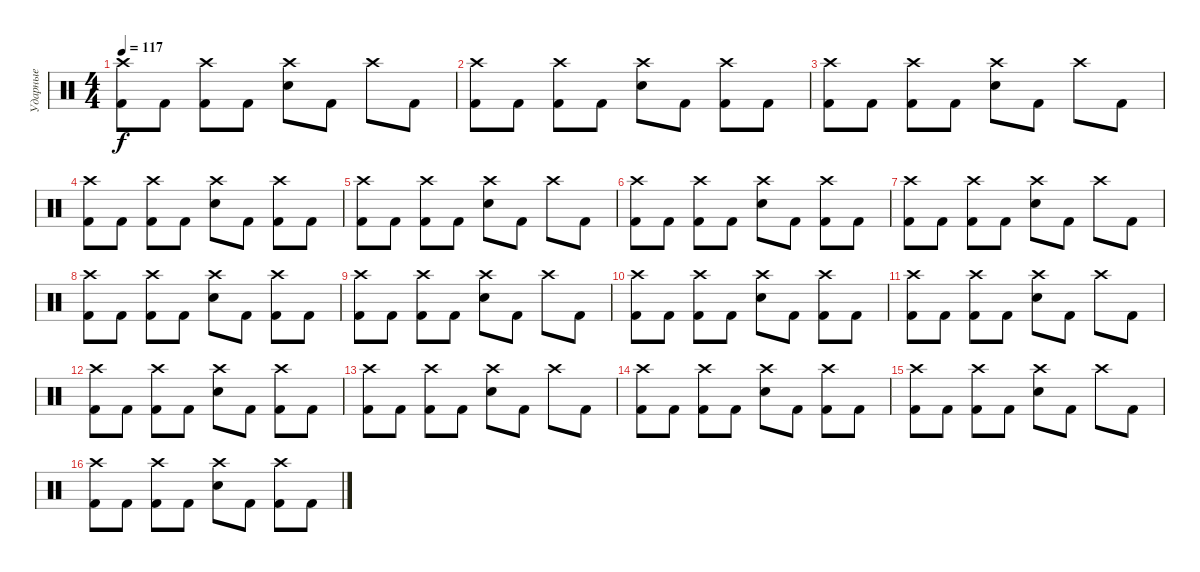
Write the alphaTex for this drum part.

\track ("Ударные" "Ударные") {instrument percussion}
\staff {score}
\articulation defaults
\ts (4 4)
\tempo 117
\clef neutral
\ks c
("Crash high (hit)" "Kick (hit) 2").8{dy f} "Kick (hit) 2".8 ("Crash high (hit)" "Kick (hit) 2").8 "Kick (hit) 2".8 ("Crash high (hit)" "Electric Snare (hit)").8 "Kick (hit) 2".8 "Crash high (hit)".8 "Kick (hit) 2".8 |
("Crash high (hit)" "Kick (hit) 2").8 "Kick (hit) 2".8 ("Crash high (hit)" "Kick (hit) 2").8 "Kick (hit) 2".8 ("Crash high (hit)" "Electric Snare (hit)").8 "Kick (hit) 2".8 ("Crash high (hit)" "Kick (hit) 2").8 "Kick (hit) 2".8 |
("Crash high (hit)" "Kick (hit) 2").8 "Kick (hit) 2".8 ("Crash high (hit)" "Kick (hit) 2").8 "Kick (hit) 2".8 ("Crash high (hit)" "Electric Snare (hit)").8 "Kick (hit) 2".8 "Crash high (hit)".8 "Kick (hit) 2".8 |
("Crash high (hit)" "Kick (hit) 2").8 "Kick (hit) 2".8 ("Crash high (hit)" "Kick (hit) 2").8 "Kick (hit) 2".8 ("Crash high (hit)" "Electric Snare (hit)").8 "Kick (hit) 2".8 ("Crash high (hit)" "Kick (hit) 2").8 "Kick (hit) 2".8 |
("Crash high (hit)" "Kick (hit) 2").8 "Kick (hit) 2".8 ("Crash high (hit)" "Kick (hit) 2").8 "Kick (hit) 2".8 ("Crash high (hit)" "Electric Snare (hit)").8 "Kick (hit) 2".8 "Crash high (hit)".8 "Kick (hit) 2".8 |
("Crash high (hit)" "Kick (hit) 2").8 "Kick (hit) 2".8 ("Crash high (hit)" "Kick (hit) 2").8 "Kick (hit) 2".8 ("Crash high (hit)" "Electric Snare (hit)").8 "Kick (hit) 2".8 ("Crash high (hit)" "Kick (hit) 2").8 "Kick (hit) 2".8 |
("Crash high (hit)" "Kick (hit) 2").8 "Kick (hit) 2".8 ("Crash high (hit)" "Kick (hit) 2").8 "Kick (hit) 2".8 ("Crash high (hit)" "Electric Snare (hit)").8 "Kick (hit) 2".8 "Crash high (hit)".8 "Kick (hit) 2".8 |
("Crash high (hit)" "Kick (hit) 2").8 "Kick (hit) 2".8 ("Crash high (hit)" "Kick (hit) 2").8 "Kick (hit) 2".8 ("Crash high (hit)" "Electric Snare (hit)").8 "Kick (hit) 2".8 ("Crash high (hit)" "Kick (hit) 2").8 "Kick (hit) 2".8 |
("Crash high (hit)" "Kick (hit) 2").8 "Kick (hit) 2".8 ("Crash high (hit)" "Kick (hit) 2").8 "Kick (hit) 2".8 ("Crash high (hit)" "Electric Snare (hit)").8 "Kick (hit) 2".8 "Crash high (hit)".8 "Kick (hit) 2".8 |
("Crash high (hit)" "Kick (hit) 2").8 "Kick (hit) 2".8 ("Crash high (hit)" "Kick (hit) 2").8 "Kick (hit) 2".8 ("Crash high (hit)" "Electric Snare (hit)").8 "Kick (hit) 2".8 ("Crash high (hit)" "Kick (hit) 2").8 "Kick (hit) 2".8 |
("Crash high (hit)" "Kick (hit) 2").8 "Kick (hit) 2".8 ("Crash high (hit)" "Kick (hit) 2").8 "Kick (hit) 2".8 ("Crash high (hit)" "Electric Snare (hit)").8 "Kick (hit) 2".8 "Crash high (hit)".8 "Kick (hit) 2".8 |
("Crash high (hit)" "Kick (hit) 2").8 "Kick (hit) 2".8 ("Crash high (hit)" "Kick (hit) 2").8 "Kick (hit) 2".8 ("Crash high (hit)" "Electric Snare (hit)").8 "Kick (hit) 2".8 ("Crash high (hit)" "Kick (hit) 2").8 "Kick (hit) 2".8 |
("Crash high (hit)" "Kick (hit) 2").8 "Kick (hit) 2".8 ("Crash high (hit)" "Kick (hit) 2").8 "Kick (hit) 2".8 ("Crash high (hit)" "Electric Snare (hit)").8 "Kick (hit) 2".8 "Crash high (hit)".8 "Kick (hit) 2".8 |
("Crash high (hit)" "Kick (hit) 2").8 "Kick (hit) 2".8 ("Crash high (hit)" "Kick (hit) 2").8 "Kick (hit) 2".8 ("Crash high (hit)" "Electric Snare (hit)").8 "Kick (hit) 2".8 ("Crash high (hit)" "Kick (hit) 2").8 "Kick (hit) 2".8 |
("Crash high (hit)" "Kick (hit) 2").8 "Kick (hit) 2".8 ("Crash high (hit)" "Kick (hit) 2").8 "Kick (hit) 2".8 ("Crash high (hit)" "Electric Snare (hit)").8 "Kick (hit) 2".8 "Crash high (hit)".8 "Kick (hit) 2".8 |
("Crash high (hit)" "Kick (hit) 2").8 "Kick (hit) 2".8 ("Crash high (hit)" "Kick (hit) 2").8 "Kick (hit) 2".8 ("Crash high (hit)" "Electric Snare (hit)").8 "Kick (hit) 2".8 ("Crash high (hit)" "Kick (hit) 2").8 "Kick (hit) 2".8
